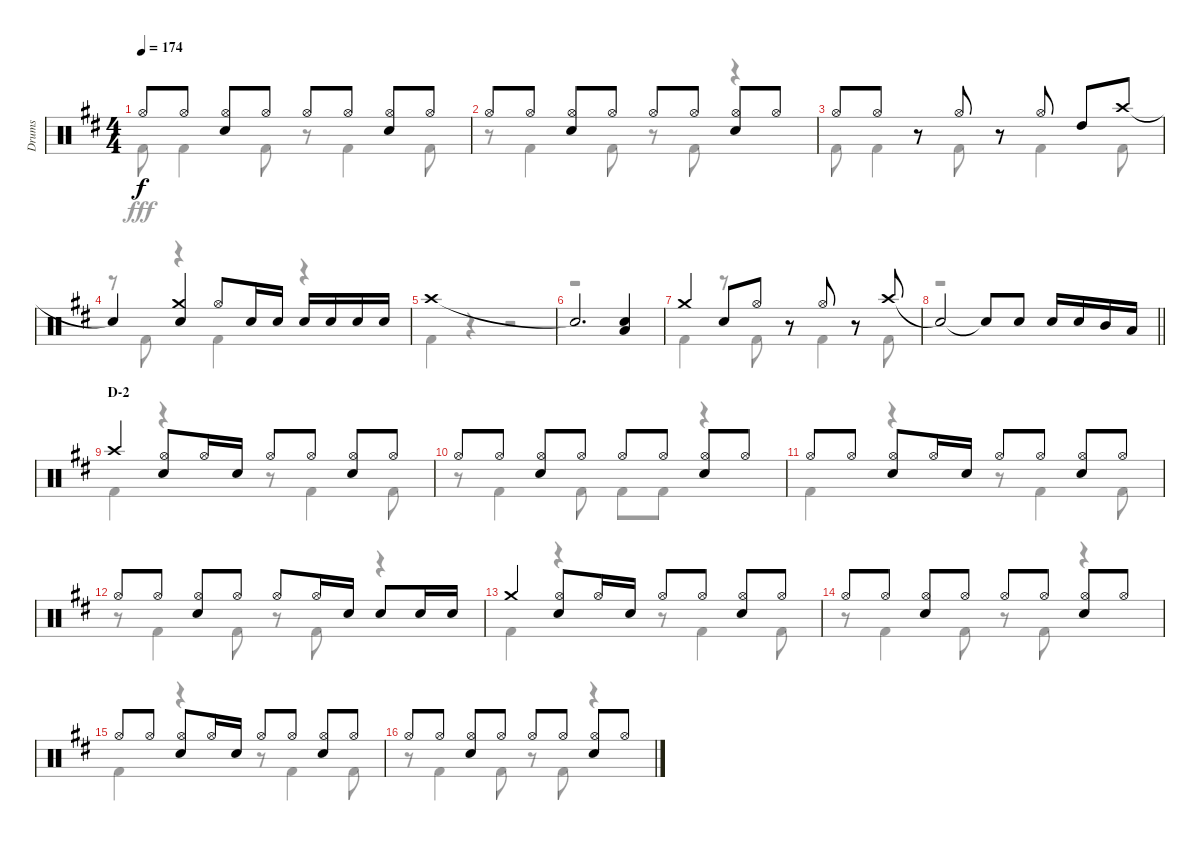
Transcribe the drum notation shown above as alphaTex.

\track ("Drums" "Drums") {instrument percussion}
\staff {score}
\articulation defaults
\voice
\ts (4 4)
\tempo 174
\clef neutral
\ks bminor "Hi-Hat (open)".8{dy f} "Hi-Hat (open)".8
("Hi-Hat (open)" "Snare (hit) 2").8 "Hi-Hat (open)".8 "Hi-Hat (open)".8 "Hi-Hat (open)".8 ("Hi-Hat (open)" "Snare (hit) 2").8 "Hi-Hat (open)".8 |
"Hi-Hat (open)".8 "Hi-Hat (open)".8 ("Hi-Hat (open)" "Snare (hit) 2").8 "Hi-Hat (open)".8 "Hi-Hat (open)".8 "Hi-Hat (open)".8 ("Hi-Hat (open)" "Snare (hit) 2").8 "Hi-Hat (open)".8 |
"Hi-Hat (open)".8 "Hi-Hat (open)".8 r.8 "Hi-Hat (open)".8 r.8 "Hi-Hat (open)".8 "High Tom (hit)".8 "Crash high (hit)".8 |
"Snare (hit)"{t}.4 ("Crash medium (hit)" "Snare (hit) 2").4 "Hi-Hat (open)".8 "Snare (hit) 2".16 "Snare (hit) 2".16 "Snare (hit) 2".16 "Snare (hit) 2".16 "Snare (hit) 2".16 "Snare (hit) 2".16 |
"Crash high (hit)".1 |
"Snare (hit)"{t}.2{d} ("Snare (hit) 2" "Low Tom (hit)").4 |
"Crash medium (hit)".4 "Snare (hit) 2".8 "Hi-Hat (open)".8 r.8 "Hi-Hat (open)".8 r.8 "Crash high (hit)".8 |
\barLineRight lightlight "Snare (hit)"{t}.2 "Snare (hit)"{t}.8 "Snare (hit) 2".8 "Snare (hit) 2".16 "Snare (hit) 2".16 "Mid Tom (hit)".16 "Low Tom (hit)".16
|
\section ("" "D-2")
"Crash high (hit)".4 ("Hi-Hat (open)" "Snare (hit) 2").8 "Hi-Hat (open)".16 "Snare (hit) 2".16 "Hi-Hat (open)".8 "Hi-Hat (open)".8 ("Hi-Hat (open)" "Snare (hit) 2").8 "Hi-Hat (open)".8 |
"Hi-Hat (open)".8 "Hi-Hat (open)".8 ("Hi-Hat (open)" "Snare (hit) 2").8 "Hi-Hat (open)".8 "Hi-Hat (open)".8 "Hi-Hat (open)".8 ("Hi-Hat (open)" "Snare (hit) 2").8 "Hi-Hat (open)".8 |
"Hi-Hat (open)".8 "Hi-Hat (open)".8 ("Hi-Hat (open)" "Snare (hit) 2").8 "Hi-Hat (open)".16 "Snare (hit) 2".16 "Hi-Hat (open)".8 "Hi-Hat (open)".8 ("Hi-Hat (open)" "Snare (hit) 2").8 "Hi-Hat (open)".8 |
"Hi-Hat (open)".8 "Hi-Hat (open)".8 ("Hi-Hat (open)" "Snare (hit) 2").8 "Hi-Hat (open)".8 "Hi-Hat (open)".8 "Hi-Hat (open)".16 "Snare (hit) 2".16 "Snare (hit) 2".8 "Snare (hit) 2".16 "Snare (hit) 2".16 |
"Crash medium (hit)".4 ("Hi-Hat (open)" "Snare (hit) 2").8 "Hi-Hat (open)".16 "Snare (hit) 2".16 "Hi-Hat (open)".8 "Hi-Hat (open)".8 ("Hi-Hat (open)" "Snare (hit) 2").8 "Hi-Hat (open)".8 |
"Hi-Hat (open)".8 "Hi-Hat (open)".8 ("Hi-Hat (open)" "Snare (hit) 2").8 "Hi-Hat (open)".8 "Hi-Hat (open)".8 "Hi-Hat (open)".8 ("Hi-Hat (open)" "Snare (hit) 2").8 "Hi-Hat (open)".8 |
"Hi-Hat (open)".8 "Hi-Hat (open)".8 ("Hi-Hat (open)" "Snare (hit) 2").8 "Hi-Hat (open)".16 "Snare (hit) 2".16 "Hi-Hat (open)".8 "Hi-Hat (open)".8 ("Hi-Hat (open)" "Snare (hit) 2").8 "Hi-Hat (open)".8 |
"Hi-Hat (open)".8 "Hi-Hat (open)".8 ("Hi-Hat (open)" "Snare (hit) 2").8 "Hi-Hat (open)".8 "Hi-Hat (open)".8 "Hi-Hat (open)".8 ("Hi-Hat (open)" "Snare (hit) 2").8 "Hi-Hat (open)".8
\voice
\clef neutral
\ottava regular
\simile none
\ks bminor "Kick (hit) 2".8{dy fff} "Kick (hit) 2".4 "Kick (hit) 2".8
r.8 "Kick (hit) 2".4 "Kick (hit) 2".8 |
r.8 "Kick (hit) 2".4 "Kick (hit) 2".8 r.8 "Kick (hit) 2".8 r.4 |
"Kick (hit) 2".8 "Kick (hit) 2".4 "Kick (hit) 2".8 r.8 "Kick (hit) 2".4 "Kick (hit) 2".8 |
r.8 "Kick (hit) 2".8 r.4 "Kick (hit) 2".4 r.4 |
"Kick (hit) 2".4 r.4 r.2 |
r.1 |
"Kick (hit) 2".4 r.8 "Kick (hit) 2".8 r.8 "Kick (hit) 2".4 "Kick (hit) 2".8 |
\barLineRight lightlight
r.1 |
"Kick (hit) 2".4 r.4 r.8 "Kick (hit) 2".4 "Kick (hit) 2".8 |
r.8 "Kick (hit) 2".4 "Kick (hit) 2".8 "Kick (hit) 2".8 "Kick (hit) 2".8 r.4 |
"Kick (hit) 2".4 r.4 r.8 "Kick (hit) 2".4 "Kick (hit) 2".8 |
r.8 "Kick (hit) 2".4 "Kick (hit) 2".8 r.8 "Kick (hit) 2".8 r.4 |
"Kick (hit) 2".4 r.4 r.8 "Kick (hit) 2".4 "Kick (hit) 2".8 |
r.8 "Kick (hit) 2".4 "Kick (hit) 2".8 r.8 "Kick (hit) 2".8 r.4 |
"Kick (hit) 2".4 r.4 r.8 "Kick (hit) 2".4 "Kick (hit) 2".8 |
r.8 "Kick (hit) 2".4 "Kick (hit) 2".8 r.8 "Kick (hit) 2".8 r.4
